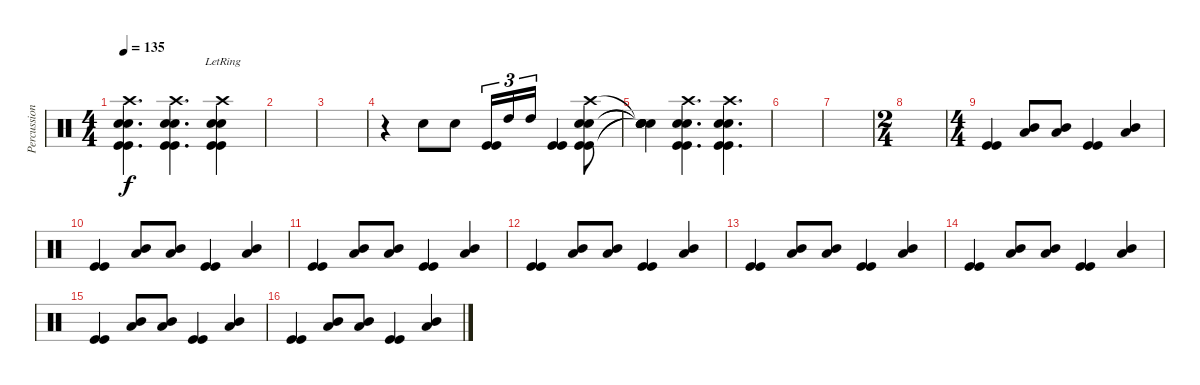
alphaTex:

\track ("Percussions" "Percussion") {instrument percussion}
\staff {score}
\articulation defaults
\ts (4 4)
\tempo 135
\clef neutral
\ks c
("Crash high (hit)" "Snare (hit) 2" "Snare (hit) 2" "Kick (hit)" "Kick (hit)").4{d dy f} ("Crash high (hit)" "Snare (hit) 2" "Snare (hit) 2" "Kick (hit)" "Kick (hit)").4{d} ("Crash high (hit)"{lr} "Snare (hit) 2" "Snare (hit) 2" "Kick (hit)" "Kick (hit)").4 |
|
|
r.4 "Snare (hit) 2".8 "Snare (hit) 2".8 ("Kick (hit)" "Kick (hit)").16{tu (3 2)} "High Tom (hit)".16{tu (3 2)} "High Tom (hit)".16{tu (3 2)} ("Kick (hit)" "Kick (hit)").4 ("Crash high (hit)" "Snare (hit) 2" "Snare (hit) 2" "Kick (hit)" "Kick (hit)").8 |
("Snare (hit)"{t} "Snare (hit)"{t} "Snare (hit)"{t} "Snare (hit)"{t} "Snare (hit)"{t}).4 ("Crash high (hit)" "Snare (hit) 2" "Snare (hit) 2" "Kick (hit)" "Kick (hit)").4{d} ("Crash high (hit)" "Snare (hit) 2" "Snare (hit) 2" "Kick (hit)" "Kick (hit)").4{d} |
|
|
\ts (2 4)
|
\ts (4 4)
("Kick (hit)" "Kick (hit)").4 ("Low Tom (hit)" "Mid Tom (hit)").8 ("Low Tom (hit)" "Mid Tom (hit)").8 ("Kick (hit)" "Kick (hit)").4 ("Low Tom (hit)" "Mid Tom (hit)").4 |
("Kick (hit)" "Kick (hit)").4 ("Low Tom (hit)" "Mid Tom (hit)").8 ("Low Tom (hit)" "Mid Tom (hit)").8 ("Kick (hit)" "Kick (hit)").4 ("Low Tom (hit)" "Mid Tom (hit)").4 |
("Kick (hit)" "Kick (hit)").4 ("Low Tom (hit)" "Mid Tom (hit)").8 ("Low Tom (hit)" "Mid Tom (hit)").8 ("Kick (hit)" "Kick (hit)").4 ("Low Tom (hit)" "Mid Tom (hit)").4 |
("Kick (hit)" "Kick (hit)").4 ("Low Tom (hit)" "Mid Tom (hit)").8 ("Low Tom (hit)" "Mid Tom (hit)").8 ("Kick (hit)" "Kick (hit)").4 ("Low Tom (hit)" "Mid Tom (hit)").4 |
("Kick (hit)" "Kick (hit)").4 ("Low Tom (hit)" "Mid Tom (hit)").8 ("Low Tom (hit)" "Mid Tom (hit)").8 ("Kick (hit)" "Kick (hit)").4 ("Low Tom (hit)" "Mid Tom (hit)").4 |
("Kick (hit)" "Kick (hit)").4 ("Low Tom (hit)" "Mid Tom (hit)").8 ("Low Tom (hit)" "Mid Tom (hit)").8 ("Kick (hit)" "Kick (hit)").4 ("Low Tom (hit)" "Mid Tom (hit)").4 |
("Kick (hit)" "Kick (hit)").4 ("Low Tom (hit)" "Mid Tom (hit)").8 ("Low Tom (hit)" "Mid Tom (hit)").8 ("Kick (hit)" "Kick (hit)").4 ("Low Tom (hit)" "Mid Tom (hit)").4 |
("Kick (hit)" "Kick (hit)").4 ("Low Tom (hit)" "Mid Tom (hit)").8 ("Low Tom (hit)" "Mid Tom (hit)").8 ("Kick (hit)" "Kick (hit)").4 ("Low Tom (hit)" "Mid Tom (hit)").4
